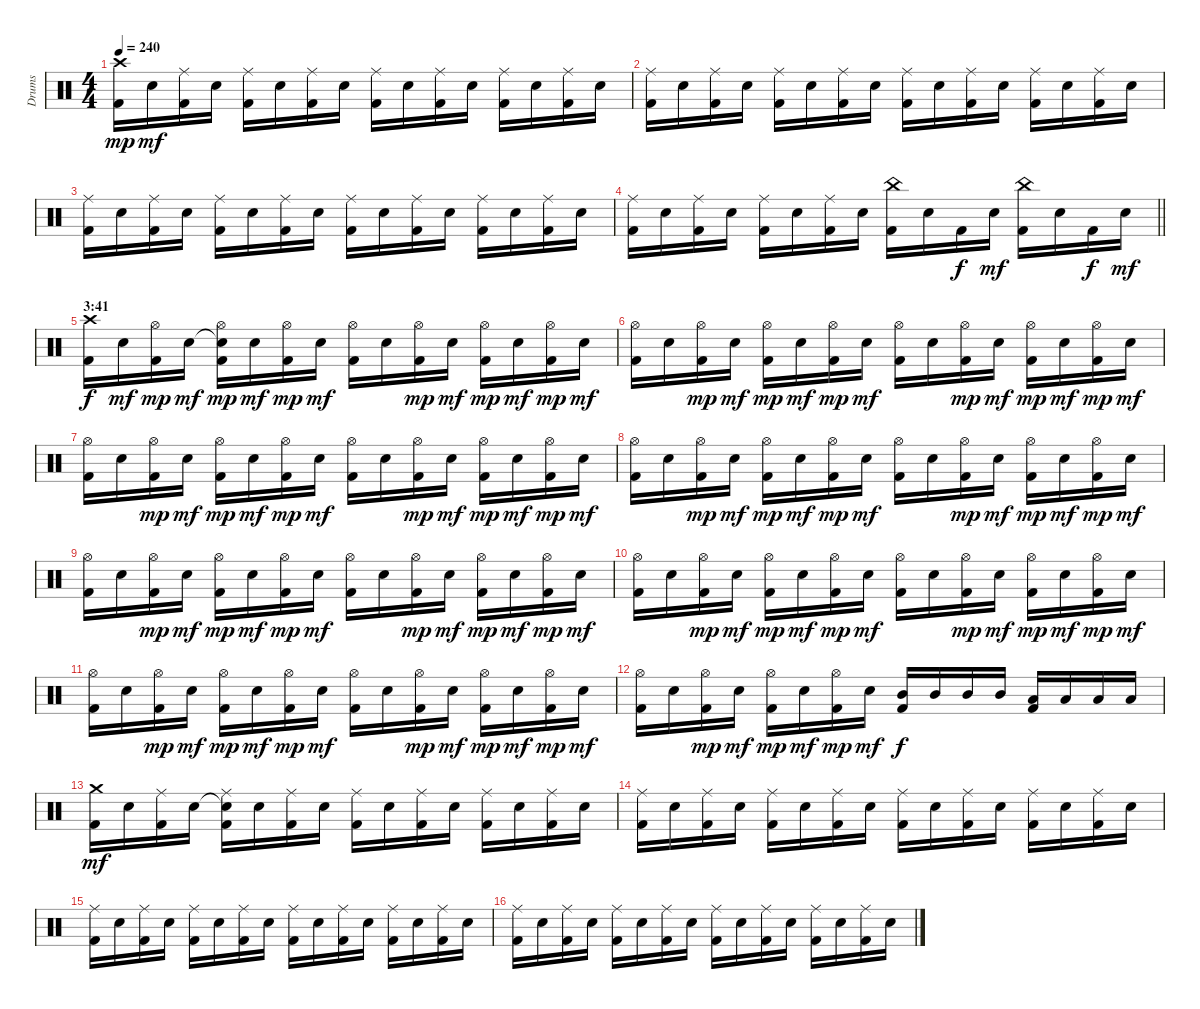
\track ("Drums" "Drums") {instrument percussion}
\staff {score}
\articulation defaults
\ts (4 4)
\tempo 240
\clef neutral
\ks c
("Crash high (hit)" "Kick (hit) 2").16{dy mp} "Electric Snare (hit)".16{dy mf} ("Ride (middle)" "Kick (hit) 2").16 "Electric Snare (hit)".16 ("Ride (middle)" "Kick (hit) 2").16 "Electric Snare (hit)".16 ("Ride (middle)" "Kick (hit) 2").16 "Electric Snare (hit)".16 ("Ride (middle)" "Kick (hit) 2").16 "Electric Snare (hit)".16 ("Ride (middle)" "Kick (hit) 2").16 "Electric Snare (hit)".16 ("Ride (middle)" "Kick (hit) 2").16 "Electric Snare (hit)".16 ("Ride (middle)" "Kick (hit) 2").16 "Electric Snare (hit)".16 |
("Ride (middle)" "Kick (hit) 2").16 "Electric Snare (hit)".16 ("Ride (middle)" "Kick (hit) 2").16 "Electric Snare (hit)".16 ("Ride (middle)" "Kick (hit) 2").16 "Electric Snare (hit)".16 ("Ride (middle)" "Kick (hit) 2").16 "Electric Snare (hit)".16 ("Ride (middle)" "Kick (hit) 2").16 "Electric Snare (hit)".16 ("Ride (middle)" "Kick (hit) 2").16 "Electric Snare (hit)".16 ("Ride (middle)" "Kick (hit) 2").16 "Electric Snare (hit)".16 ("Ride (middle)" "Kick (hit) 2").16 "Electric Snare (hit)".16 |
("Ride (middle)" "Kick (hit) 2").16 "Electric Snare (hit)".16 ("Ride (middle)" "Kick (hit) 2").16 "Electric Snare (hit)".16 ("Ride (middle)" "Kick (hit) 2").16 "Electric Snare (hit)".16 ("Ride (middle)" "Kick (hit) 2").16 "Electric Snare (hit)".16 ("Ride (middle)" "Kick (hit) 2").16 "Electric Snare (hit)".16 ("Ride (middle)" "Kick (hit) 2").16 "Electric Snare (hit)".16 ("Ride (middle)" "Kick (hit) 2").16 "Electric Snare (hit)".16 ("Ride (middle)" "Kick (hit) 2").16 "Electric Snare (hit)".16 |
\barLineRight lightlight
("Ride (middle)" "Kick (hit) 2").16 "Electric Snare (hit)".16 ("Ride (middle)" "Kick (hit) 2").16 "Electric Snare (hit)".16 ("Ride (middle)" "Kick (hit) 2").16 "Electric Snare (hit)".16 ("Ride (middle)" "Kick (hit) 2").16 "Electric Snare (hit)".16 ("China (hit)" "Kick (hit) 2").16 "Electric Snare (hit)".16 "Kick (hit) 2".16{dy f} "Electric Snare (hit)".16{dy mf} ("China (hit)" "Kick (hit) 2").16 "Electric Snare (hit)".16 "Kick (hit) 2".16{dy f} "Electric Snare (hit)".16{dy mf} |
\section ("" "3:41")
("Crash high (hit)" "Kick (hit) 2").16{dy f} "Electric Snare (hit)".16{dy mf} ("Hi-Hat (open)" "Kick (hit) 2").16{dy mp} "Electric Snare (hit)".16{dy mf} ("Snare (hit)"{t} "Hi-Hat (open)" "Kick (hit) 2").16{dy mp} "Electric Snare (hit)".16{dy mf} ("Hi-Hat (open)" "Kick (hit) 2").16{dy mp} "Electric Snare (hit)".16{dy mf} ("Hi-Hat (open)" "Kick (hit) 2").16 "Electric Snare (hit)".16 ("Hi-Hat (open)" "Kick (hit) 2").16{dy mp} "Electric Snare (hit)".16{dy mf} ("Hi-Hat (open)" "Kick (hit) 2").16{dy mp} "Electric Snare (hit)".16{dy mf} ("Hi-Hat (open)" "Kick (hit) 2").16{dy mp} "Electric Snare (hit)".16{dy mf} |
("Hi-Hat (open)" "Kick (hit) 2").16 "Electric Snare (hit)".16 ("Hi-Hat (open)" "Kick (hit) 2").16{dy mp} "Electric Snare (hit)".16{dy mf} ("Hi-Hat (open)" "Kick (hit) 2").16{dy mp} "Electric Snare (hit)".16{dy mf} ("Hi-Hat (open)" "Kick (hit) 2").16{dy mp} "Electric Snare (hit)".16{dy mf} ("Hi-Hat (open)" "Kick (hit) 2").16 "Electric Snare (hit)".16 ("Hi-Hat (open)" "Kick (hit) 2").16{dy mp} "Electric Snare (hit)".16{dy mf} ("Hi-Hat (open)" "Kick (hit) 2").16{dy mp} "Electric Snare (hit)".16{dy mf} ("Hi-Hat (open)" "Kick (hit) 2").16{dy mp} "Electric Snare (hit)".16{dy mf} |
("Hi-Hat (open)" "Kick (hit) 2").16 "Electric Snare (hit)".16 ("Hi-Hat (open)" "Kick (hit) 2").16{dy mp} "Electric Snare (hit)".16{dy mf} ("Hi-Hat (open)" "Kick (hit) 2").16{dy mp} "Electric Snare (hit)".16{dy mf} ("Hi-Hat (open)" "Kick (hit) 2").16{dy mp} "Electric Snare (hit)".16{dy mf} ("Hi-Hat (open)" "Kick (hit) 2").16 "Electric Snare (hit)".16 ("Hi-Hat (open)" "Kick (hit) 2").16{dy mp} "Electric Snare (hit)".16{dy mf} ("Hi-Hat (open)" "Kick (hit) 2").16{dy mp} "Electric Snare (hit)".16{dy mf} ("Hi-Hat (open)" "Kick (hit) 2").16{dy mp} "Electric Snare (hit)".16{dy mf} |
("Hi-Hat (open)" "Kick (hit) 2").16 "Electric Snare (hit)".16 ("Hi-Hat (open)" "Kick (hit) 2").16{dy mp} "Electric Snare (hit)".16{dy mf} ("Hi-Hat (open)" "Kick (hit) 2").16{dy mp} "Electric Snare (hit)".16{dy mf} ("Hi-Hat (open)" "Kick (hit) 2").16{dy mp} "Electric Snare (hit)".16{dy mf} ("Hi-Hat (open)" "Kick (hit) 2").16 "Electric Snare (hit)".16 ("Hi-Hat (open)" "Kick (hit) 2").16{dy mp} "Electric Snare (hit)".16{dy mf} ("Hi-Hat (open)" "Kick (hit) 2").16{dy mp} "Electric Snare (hit)".16{dy mf} ("Hi-Hat (open)" "Kick (hit) 2").16{dy mp} "Electric Snare (hit)".16{dy mf} |
("Hi-Hat (open)" "Kick (hit) 2").16 "Electric Snare (hit)".16 ("Hi-Hat (open)" "Kick (hit) 2").16{dy mp} "Electric Snare (hit)".16{dy mf} ("Hi-Hat (open)" "Kick (hit) 2").16{dy mp} "Electric Snare (hit)".16{dy mf} ("Hi-Hat (open)" "Kick (hit) 2").16{dy mp} "Electric Snare (hit)".16{dy mf} ("Hi-Hat (open)" "Kick (hit) 2").16 "Electric Snare (hit)".16 ("Hi-Hat (open)" "Kick (hit) 2").16{dy mp} "Electric Snare (hit)".16{dy mf} ("Hi-Hat (open)" "Kick (hit) 2").16{dy mp} "Electric Snare (hit)".16{dy mf} ("Hi-Hat (open)" "Kick (hit) 2").16{dy mp} "Electric Snare (hit)".16{dy mf} |
("Hi-Hat (open)" "Kick (hit) 2").16 "Electric Snare (hit)".16 ("Hi-Hat (open)" "Kick (hit) 2").16{dy mp} "Electric Snare (hit)".16{dy mf} ("Hi-Hat (open)" "Kick (hit) 2").16{dy mp} "Electric Snare (hit)".16{dy mf} ("Hi-Hat (open)" "Kick (hit) 2").16{dy mp} "Electric Snare (hit)".16{dy mf} ("Hi-Hat (open)" "Kick (hit) 2").16 "Electric Snare (hit)".16 ("Hi-Hat (open)" "Kick (hit) 2").16{dy mp} "Electric Snare (hit)".16{dy mf} ("Hi-Hat (open)" "Kick (hit) 2").16{dy mp} "Electric Snare (hit)".16{dy mf} ("Hi-Hat (open)" "Kick (hit) 2").16{dy mp} "Electric Snare (hit)".16{dy mf} |
("Hi-Hat (open)" "Kick (hit) 2").16 "Electric Snare (hit)".16 ("Hi-Hat (open)" "Kick (hit) 2").16{dy mp} "Electric Snare (hit)".16{dy mf} ("Hi-Hat (open)" "Kick (hit) 2").16{dy mp} "Electric Snare (hit)".16{dy mf} ("Hi-Hat (open)" "Kick (hit) 2").16{dy mp} "Electric Snare (hit)".16{dy mf} ("Hi-Hat (open)" "Kick (hit) 2").16 "Electric Snare (hit)".16 ("Hi-Hat (open)" "Kick (hit) 2").16{dy mp} "Electric Snare (hit)".16{dy mf} ("Hi-Hat (open)" "Kick (hit) 2").16{dy mp} "Electric Snare (hit)".16{dy mf} ("Hi-Hat (open)" "Kick (hit) 2").16{dy mp} "Electric Snare (hit)".16{dy mf} |
("Hi-Hat (open)" "Kick (hit) 2").16 "Electric Snare (hit)".16 ("Hi-Hat (open)" "Kick (hit) 2").16{dy mp} "Electric Snare (hit)".16{dy mf} ("Hi-Hat (open)" "Kick (hit) 2").16{dy mp} "Electric Snare (hit)".16{dy mf} ("Hi-Hat (open)" "Kick (hit) 2").16{dy mp} "Electric Snare (hit)".16{dy mf} ("Mid Tom (hit)" "Kick (hit) 2").16{dy f} "Mid Tom (hit)".16 "Mid Tom (hit)".16 "Mid Tom (hit)".16 ("Low Tom (hit)" "Kick (hit) 2").16 "Low Tom (hit)".16 "Low Tom (hit)".16 "Low Tom (hit)".16 |
("Crash medium (hit)" "Kick (hit) 2").16{dy mf} "Electric Snare (hit)".16 ("Ride (middle)" "Kick (hit) 2").16 "Electric Snare (hit)".16 ("Snare (hit)"{t} "Ride (middle)" "Kick (hit) 2").16 "Electric Snare (hit)".16 ("Ride (middle)" "Kick (hit) 2").16 "Electric Snare (hit)".16 ("Ride (middle)" "Kick (hit) 2").16 "Electric Snare (hit)".16 ("Ride (middle)" "Kick (hit) 2").16 "Electric Snare (hit)".16 ("Ride (middle)" "Kick (hit) 2").16 "Electric Snare (hit)".16 ("Ride (middle)" "Kick (hit) 2").16 "Electric Snare (hit)".16 |
("Ride (middle)" "Kick (hit) 2").16 "Electric Snare (hit)".16 ("Ride (middle)" "Kick (hit) 2").16 "Electric Snare (hit)".16 ("Ride (middle)" "Kick (hit) 2").16 "Electric Snare (hit)".16 ("Ride (middle)" "Kick (hit) 2").16 "Electric Snare (hit)".16 ("Ride (middle)" "Kick (hit) 2").16 "Electric Snare (hit)".16 ("Ride (middle)" "Kick (hit) 2").16 "Electric Snare (hit)".16 ("Ride (middle)" "Kick (hit) 2").16 "Electric Snare (hit)".16 ("Ride (middle)" "Kick (hit) 2").16 "Electric Snare (hit)".16 |
("Ride (middle)" "Kick (hit) 2").16 "Electric Snare (hit)".16 ("Ride (middle)" "Kick (hit) 2").16 "Electric Snare (hit)".16 ("Ride (middle)" "Kick (hit) 2").16 "Electric Snare (hit)".16 ("Ride (middle)" "Kick (hit) 2").16 "Electric Snare (hit)".16 ("Ride (middle)" "Kick (hit) 2").16 "Electric Snare (hit)".16 ("Ride (middle)" "Kick (hit) 2").16 "Electric Snare (hit)".16 ("Ride (middle)" "Kick (hit) 2").16 "Electric Snare (hit)".16 ("Ride (middle)" "Kick (hit) 2").16 "Electric Snare (hit)".16 |
("Ride (middle)" "Kick (hit) 2").16 "Electric Snare (hit)".16 ("Ride (middle)" "Kick (hit) 2").16 "Electric Snare (hit)".16 ("Ride (middle)" "Kick (hit) 2").16 "Electric Snare (hit)".16 ("Ride (middle)" "Kick (hit) 2").16 "Electric Snare (hit)".16 ("Ride (middle)" "Kick (hit) 2").16 "Electric Snare (hit)".16 ("Ride (middle)" "Kick (hit) 2").16 "Electric Snare (hit)".16 ("Ride (middle)" "Kick (hit) 2").16 "Electric Snare (hit)".16 ("Ride (middle)" "Kick (hit) 2").16 "Electric Snare (hit)".16
